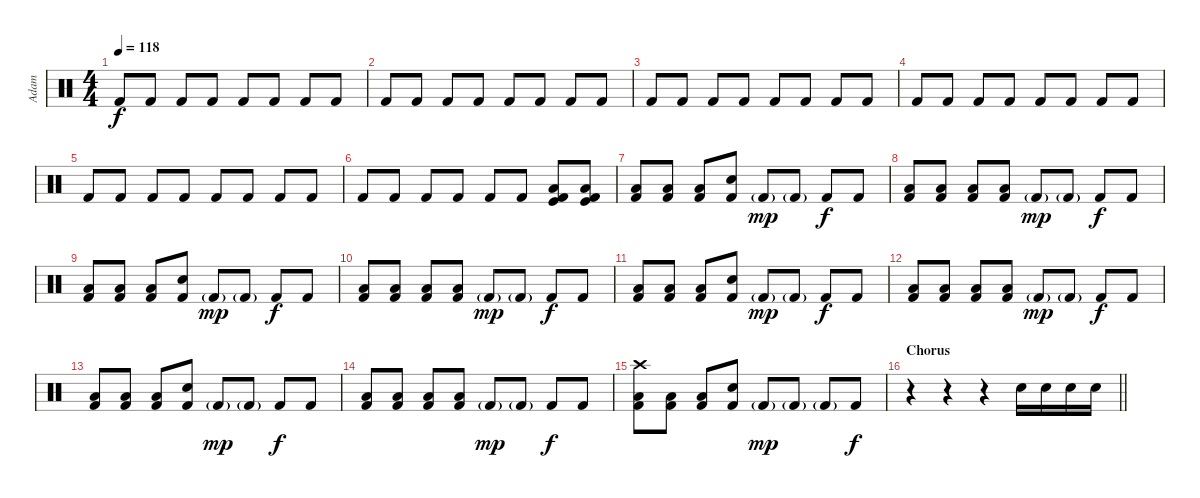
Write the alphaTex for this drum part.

\track ("Adam" "Adam") {instrument percussion}
\staff {score}
\articulation defaults
\ts (4 4)
\tempo 118
\clef neutral
\ks c "Kick (hit) 2".8{dy f} "Kick (hit) 2".8 "Kick (hit) 2".8 "Kick (hit) 2".8 "Kick (hit) 2".8 "Kick (hit) 2".8 "Kick (hit) 2".8 "Kick (hit) 2".8
|
"Kick (hit) 2".8 "Kick (hit) 2".8 "Kick (hit) 2".8 "Kick (hit) 2".8 "Kick (hit) 2".8 "Kick (hit) 2".8 "Kick (hit) 2".8 "Kick (hit) 2".8 |
"Kick (hit) 2".8 "Kick (hit) 2".8 "Kick (hit) 2".8 "Kick (hit) 2".8 "Kick (hit) 2".8 "Kick (hit) 2".8 "Kick (hit) 2".8 "Kick (hit) 2".8 |
"Kick (hit) 2".8 "Kick (hit) 2".8 "Kick (hit) 2".8 "Kick (hit) 2".8 "Kick (hit) 2".8 "Kick (hit) 2".8 "Kick (hit) 2".8 "Kick (hit) 2".8 |
"Kick (hit) 2".8 "Kick (hit) 2".8 "Kick (hit) 2".8 "Kick (hit) 2".8 "Kick (hit) 2".8 "Kick (hit) 2".8 "Kick (hit) 2".8 "Kick (hit) 2".8 |
"Kick (hit) 2".8 "Kick (hit) 2".8 "Kick (hit) 2".8 "Kick (hit) 2".8 "Kick (hit) 2".8 "Kick (hit) 2".8 ("Kick (hit) 2" "Low Floor Tom (hit)" "Kick (hit)").8 ("Kick (hit) 2" "Low Floor Tom (hit)" "Kick (hit)").8 |
("Kick (hit) 2" "Low Floor Tom (hit)").8 ("Kick (hit) 2" "Low Floor Tom (hit)").8 ("Kick (hit) 2" "Low Floor Tom (hit)").8 ("Kick (hit) 2" "Electric Snare (hit)").8 "Kick (hit) 2"{g}.8{dy mp} "Kick (hit) 2"{g}.8 "Kick (hit) 2".8{dy f} "Kick (hit) 2".8 |
("Kick (hit) 2" "Low Floor Tom (hit)").8 ("Kick (hit) 2" "Low Floor Tom (hit)").8 ("Kick (hit) 2" "Low Floor Tom (hit)").8 ("Kick (hit) 2" "Low Floor Tom (hit)").8 "Kick (hit) 2"{g}.8{dy mp} "Kick (hit) 2"{g}.8 "Kick (hit) 2".8{dy f} "Kick (hit) 2".8 |
("Kick (hit) 2" "Low Floor Tom (hit)").8 ("Kick (hit) 2" "Low Floor Tom (hit)").8 ("Kick (hit) 2" "Low Floor Tom (hit)").8 ("Kick (hit) 2" "Electric Snare (hit)").8 "Kick (hit) 2"{g}.8{dy mp} "Kick (hit) 2"{g}.8 "Kick (hit) 2".8{dy f} "Kick (hit) 2".8 |
("Kick (hit) 2" "Low Floor Tom (hit)").8 ("Kick (hit) 2" "Low Floor Tom (hit)").8 ("Kick (hit) 2" "Low Floor Tom (hit)").8 ("Kick (hit) 2" "Low Floor Tom (hit)").8 "Kick (hit) 2"{g}.8{dy mp} "Kick (hit) 2"{g}.8 "Kick (hit) 2".8{dy f} "Kick (hit) 2".8 |
("Kick (hit) 2" "Low Floor Tom (hit)").8 ("Kick (hit) 2" "Low Floor Tom (hit)").8 ("Kick (hit) 2" "Low Floor Tom (hit)").8 ("Kick (hit) 2" "Electric Snare (hit)").8 "Kick (hit) 2"{g}.8{dy mp} "Kick (hit) 2"{g}.8 "Kick (hit) 2".8{dy f} "Kick (hit) 2".8 |
("Kick (hit) 2" "Low Floor Tom (hit)").8 ("Kick (hit) 2" "Low Floor Tom (hit)").8 ("Kick (hit) 2" "Low Floor Tom (hit)").8 ("Kick (hit) 2" "Low Floor Tom (hit)").8 "Kick (hit) 2"{g}.8{dy mp} "Kick (hit) 2"{g}.8 "Kick (hit) 2".8{dy f} "Kick (hit) 2".8 |
("Kick (hit) 2" "Low Floor Tom (hit)").8 ("Kick (hit) 2" "Low Floor Tom (hit)").8 ("Kick (hit) 2" "Low Floor Tom (hit)").8 ("Kick (hit) 2" "Electric Snare (hit)").8 "Kick (hit) 2"{g}.8{dy mp} "Kick (hit) 2"{g}.8 "Kick (hit) 2".8{dy f} "Kick (hit) 2".8 |
("Kick (hit) 2" "Low Floor Tom (hit)").8 ("Kick (hit) 2" "Low Floor Tom (hit)").8 ("Kick (hit) 2" "Low Floor Tom (hit)").8 ("Kick (hit) 2" "Low Floor Tom (hit)").8 "Kick (hit) 2"{g}.8{dy mp} "Kick (hit) 2"{g}.8 "Kick (hit) 2".8{dy f} "Kick (hit) 2".8 |
("Kick (hit) 2" "Low Floor Tom (hit)" "Crash high (hit)").8 ("Kick (hit) 2" "Low Floor Tom (hit)").8 ("Kick (hit) 2" "Low Floor Tom (hit)").8 ("Kick (hit) 2" "Electric Snare (hit)").8 "Kick (hit) 2"{g}.8{dy mp} "Kick (hit) 2"{g}.8 "Kick (hit) 2"{g}.8 "Kick (hit) 2".8{dy f} |
\section ("" "Chorus")
\barLineRight lightlight
r.4 r.4 r.4 "Electric Snare (hit)".16 "Electric Snare (hit)".16 "Electric Snare (hit)".16 "Electric Snare (hit)".16
